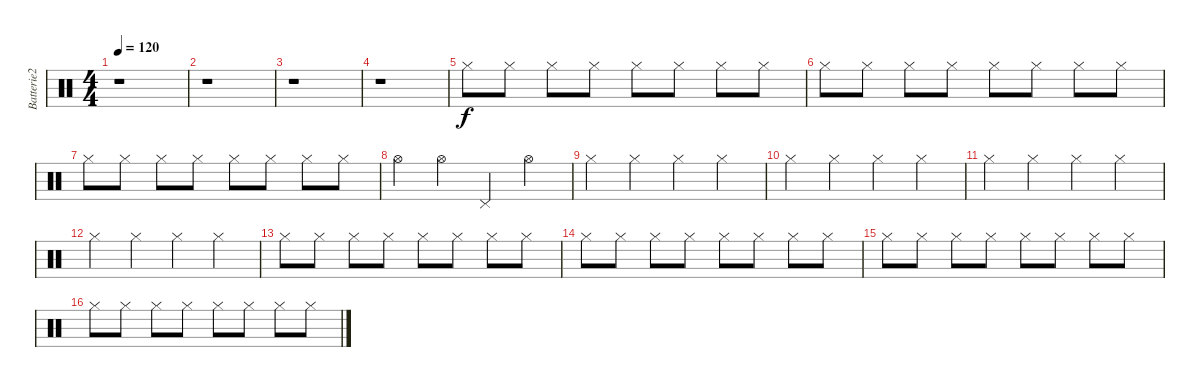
\track ("Batterie2" "Batterie2") {instrument percussion}
\staff {score}
\articulation defaults
\ts (4 4)
\tempo 120
\clef neutral
\ks c
r.1{dy f} |
r.1 |
r.1 |
r.1 |
"Hi-Hat (closed)".8 "Hi-Hat (closed)".8 "Hi-Hat (closed)".8 "Hi-Hat (closed)".8 "Hi-Hat (closed)".8 "Hi-Hat (closed)".8 "Hi-Hat (closed)".8 "Hi-Hat (closed)".8 |
"Hi-Hat (closed)".8 "Hi-Hat (closed)".8 "Hi-Hat (closed)".8 "Hi-Hat (closed)".8 "Hi-Hat (closed)".8 "Hi-Hat (closed)".8 "Hi-Hat (closed)".8 "Hi-Hat (closed)".8 |
"Hi-Hat (closed)".8 "Hi-Hat (closed)".8 "Hi-Hat (closed)".8 "Hi-Hat (closed)".8 "Hi-Hat (closed)".8 "Hi-Hat (closed)".8 "Hi-Hat (closed)".8 "Hi-Hat (closed)".8 |
"Hi-Hat (open)".4 "Hi-Hat (open)".4 "Pedal Hi-Hat (hit)".4 "Hi-Hat (open)".4 |
"Hi-Hat (closed)".4 "Hi-Hat (closed)".4 "Hi-Hat (closed)".4 "Hi-Hat (closed)".4 |
"Hi-Hat (closed)".4 "Hi-Hat (closed)".4 "Hi-Hat (closed)".4 "Hi-Hat (closed)".4 |
"Hi-Hat (closed)".4 "Hi-Hat (closed)".4 "Hi-Hat (closed)".4 "Hi-Hat (closed)".4 |
"Hi-Hat (closed)".4 "Hi-Hat (closed)".4 "Hi-Hat (closed)".4 "Hi-Hat (closed)".4 |
"Hi-Hat (closed)".8 "Hi-Hat (closed)".8 "Hi-Hat (closed)".8 "Hi-Hat (closed)".8 "Hi-Hat (closed)".8 "Hi-Hat (closed)".8 "Hi-Hat (closed)".8 "Hi-Hat (closed)".8 |
"Hi-Hat (closed)".8 "Hi-Hat (closed)".8 "Hi-Hat (closed)".8 "Hi-Hat (closed)".8 "Hi-Hat (closed)".8 "Hi-Hat (closed)".8 "Hi-Hat (closed)".8 "Hi-Hat (closed)".8 |
"Hi-Hat (closed)".8 "Hi-Hat (closed)".8 "Hi-Hat (closed)".8 "Hi-Hat (closed)".8 "Hi-Hat (closed)".8 "Hi-Hat (closed)".8 "Hi-Hat (closed)".8 "Hi-Hat (closed)".8 |
"Hi-Hat (closed)".8 "Hi-Hat (closed)".8 "Hi-Hat (closed)".8 "Hi-Hat (closed)".8 "Hi-Hat (closed)".8 "Hi-Hat (closed)".8 "Hi-Hat (closed)".8 "Hi-Hat (closed)".8
